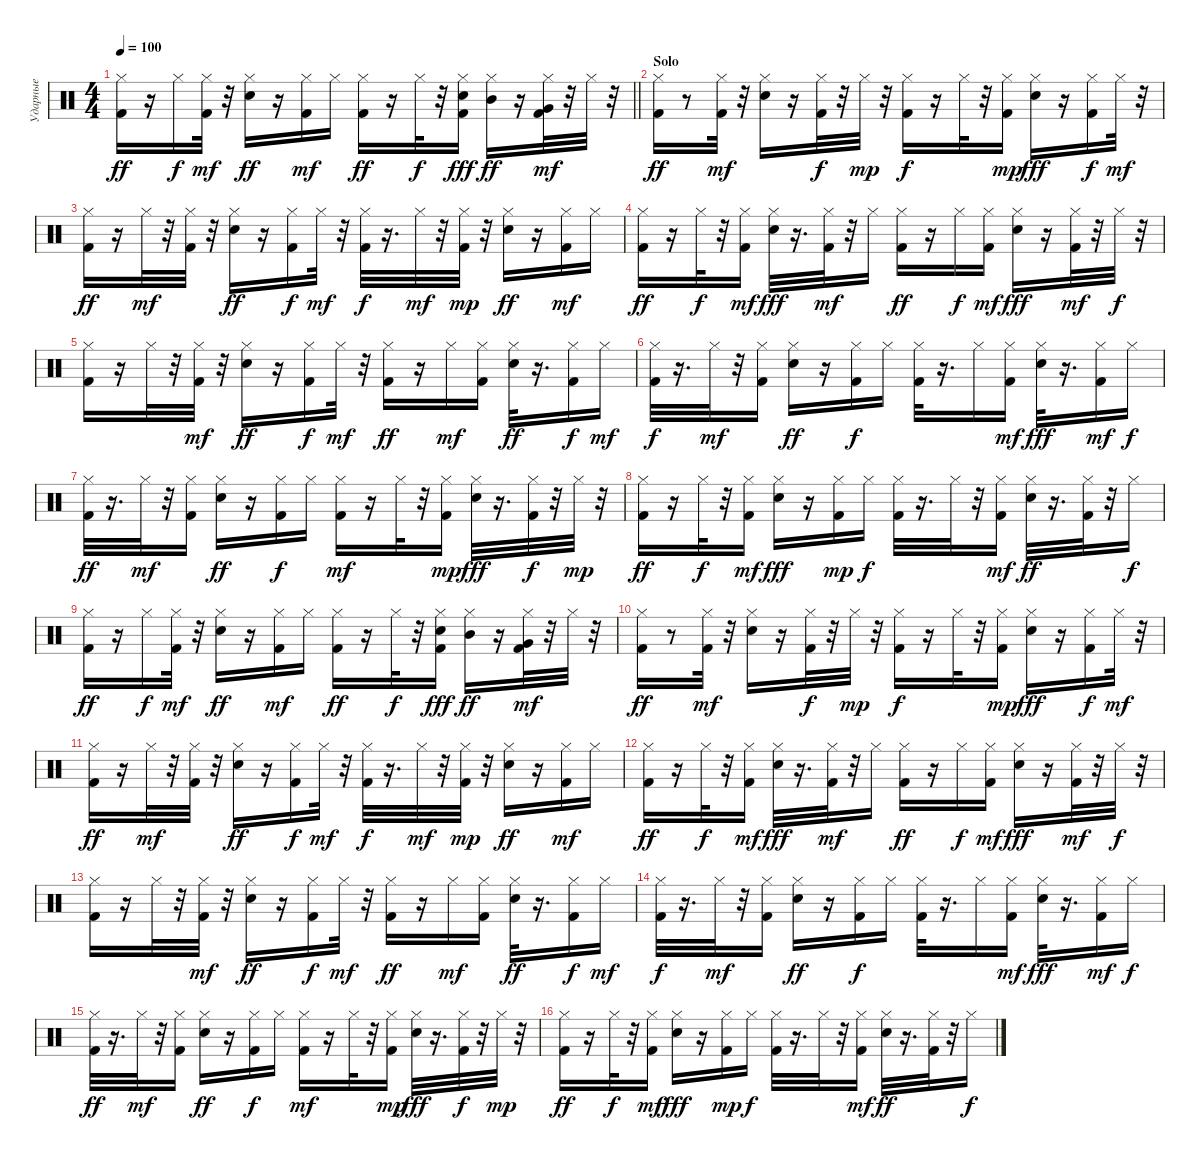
\track ("Ударные" "Ударные") {instrument percussion}
\staff {score}
\articulation defaults
\ts (4 4)
\tempo 100
\clef neutral
\barLineRight lightlight
\ks c
("Hi-Hat (closed)" "Kick (hit) 2").16{dy ff} r.16 "Hi-Hat (closed)".16{dy f} ("Kick (hit) 2" "Hi-Hat (closed)").32{dy mf} r.32 ("Hi-Hat (closed)" "Snare (hit) 2").16{dy ff} r.16 ("Hi-Hat (closed)" "Kick (hit) 2").16{dy mf} "Hi-Hat (closed)".16 ("Hi-Hat (closed)" "Kick (hit) 2").16{dy ff} r.16 "Hi-Hat (closed)".32{dy f} r.32 ("Hi-Hat (closed)" "Kick (hit) 2" "Snare (hit) 2").16{dy fff} ("Hi-Hat (closed)" "Mid Tom (hit)").16{dy ff} r.16 ("Kick (hit) 2" "Hi-Hat (closed)" "Very Low Tom (hit)").32{dy mf} r.32 "Hi-Hat (closed)".32 r.32 |
\section ("" "Solo")
("Kick (hit) 2" "Hi-Hat (closed)").16{dy ff} r.8 ("Hi-Hat (closed)" "Kick (hit) 2").32{dy mf} r.32 ("Snare (hit) 2" "Hi-Hat (closed)").16 r.16 ("Kick (hit) 2" "Hi-Hat (closed)").32{dy f} r.32 "Hi-Hat (closed)".32{dy mp} r.32 ("Kick (hit) 2" "Hi-Hat (closed)").16{dy f} r.16 "Hi-Hat (closed)".32 r.32 ("Kick (hit) 2" "Hi-Hat (closed)").16{dy mp} ("Hi-Hat (closed)" "Snare (hit) 2").16{dy fff} r.16 ("Kick (hit) 2" "Hi-Hat (closed)").16{dy f} "Hi-Hat (closed)".32{dy mf} r.32 |
("Kick (hit) 2" "Hi-Hat (closed)").16{dy ff} r.16 "Hi-Hat (closed)".32{dy mf} r.32 ("Kick (hit) 2" "Hi-Hat (closed)").32 r.32 ("Hi-Hat (closed)" "Snare (hit) 2").16{dy ff} r.16 ("Kick (hit) 2" "Hi-Hat (closed)").16{dy f} "Hi-Hat (closed)".32{dy mf} r.32 ("Kick (hit) 2" "Hi-Hat (closed)").32{dy f} r.16{d} "Hi-Hat (closed)".32{dy mf} r.32 ("Kick (hit) 2" "Hi-Hat (closed)").32{dy mp} r.32 ("Hi-Hat (closed)" "Snare (hit) 2").16{dy ff} r.16 ("Hi-Hat (closed)" "Kick (hit) 2").16{dy mf} "Hi-Hat (closed)".16 |
("Hi-Hat (closed)" "Kick (hit) 2").16{dy ff} r.16 "Hi-Hat (closed)".32{dy f} r.32 ("Kick (hit) 2" "Hi-Hat (closed)").16{dy mf} ("Hi-Hat (closed)" "Snare (hit) 2").32{dy fff} r.16{d} ("Kick (hit) 2" "Hi-Hat (closed)").32{dy mf} r.32 "Hi-Hat (closed)".16 ("Hi-Hat (closed)" "Kick (hit) 2").16{dy ff} r.16 "Hi-Hat (closed)".16{dy f} ("Kick (hit) 2" "Hi-Hat (closed)").16{dy mf} ("Hi-Hat (closed)" "Snare (hit) 2").16{dy fff} r.16 ("Kick (hit) 2" "Hi-Hat (closed)").32{dy mf} r.32 "Hi-Hat (closed)".32{dy f} r.32 |
("Hi-Hat (closed)" "Kick (hit) 2").16 r.16 "Hi-Hat (closed)".32 r.32 ("Kick (hit) 2" "Hi-Hat (closed)").32{dy mf} r.32 ("Hi-Hat (closed)" "Snare (hit) 2").16{dy ff} r.16 ("Kick (hit) 2" "Hi-Hat (closed)").16{dy f} "Hi-Hat (closed)".32{dy mf} r.32 ("Kick (hit) 2" "Hi-Hat (closed)").16{dy ff} r.16 "Hi-Hat (closed)".16{dy mf} ("Kick (hit) 2" "Hi-Hat (closed)").16 ("Hi-Hat (closed)" "Snare (hit) 2").32{dy ff} r.16{d} ("Kick (hit) 2" "Hi-Hat (closed)").16{dy f} "Hi-Hat (closed)".16{dy mf} |
("Kick (hit) 2" "Hi-Hat (closed)").32{dy f} r.16{d} "Hi-Hat (closed)".32{dy mf} r.32 ("Kick (hit) 2" "Hi-Hat (closed)").16 ("Hi-Hat (closed)" "Snare (hit) 2").16{dy ff} r.16 ("Kick (hit) 2" "Hi-Hat (closed)").16{dy f} "Hi-Hat (closed)".16 ("Kick (hit) 2" "Hi-Hat (closed)").32 r.16{d} "Hi-Hat (closed)".16 ("Kick (hit) 2" "Hi-Hat (closed)").16{dy mf} ("Hi-Hat (closed)" "Snare (hit) 2").32{dy fff} r.16{d} ("Kick (hit) 2" "Hi-Hat (closed)").16{dy mf} "Hi-Hat (closed)".16{dy f} |
("Kick (hit) 2" "Hi-Hat (closed)").32{dy ff} r.16{d} "Hi-Hat (closed)".32{dy mf} r.32 ("Kick (hit) 2" "Hi-Hat (closed)").16 ("Hi-Hat (closed)" "Snare (hit) 2").16{dy ff} r.16 ("Kick (hit) 2" "Hi-Hat (closed)").16{dy f} "Hi-Hat (closed)".16 ("Hi-Hat (closed)" "Kick (hit) 2").16{dy mf} r.16 "Hi-Hat (closed)".32 r.32 ("Kick (hit) 2" "Hi-Hat (closed)").16{dy mp} ("Hi-Hat (closed)" "Snare (hit) 2").32{dy fff} r.16{d} ("Kick (hit) 2" "Hi-Hat (closed)").32{dy f} r.32 "Hi-Hat (closed)".32{dy mp} r.32 |
("Kick (hit) 2" "Hi-Hat (closed)").16{dy ff} r.16 "Hi-Hat (closed)".32{dy f} r.32 ("Hi-Hat (closed)" "Kick (hit) 2").16{dy mf} ("Hi-Hat (closed)" "Snare (hit) 2").16{dy fff} r.16 ("Kick (hit) 2" "Hi-Hat (closed)").16{dy mp} "Hi-Hat (closed)".16{dy f} ("Kick (hit) 2" "Hi-Hat (closed)").32 r.16{d} "Hi-Hat (closed)".32 r.32 ("Kick (hit) 2" "Hi-Hat (closed)").16{dy mf} ("Hi-Hat (closed)" "Snare (hit) 2").32{dy ff} r.16{d} ("Kick (hit) 2" "Hi-Hat (closed)").32 r.32 "Hi-Hat (closed)".16{dy f} |
("Hi-Hat (closed)" "Kick (hit) 2").16{dy ff} r.16 "Hi-Hat (closed)".16{dy f} ("Kick (hit) 2" "Hi-Hat (closed)").32{dy mf} r.32 ("Hi-Hat (closed)" "Snare (hit) 2").16{dy ff} r.16 ("Hi-Hat (closed)" "Kick (hit) 2").16{dy mf} "Hi-Hat (closed)".16 ("Hi-Hat (closed)" "Kick (hit) 2").16{dy ff} r.16 "Hi-Hat (closed)".32{dy f} r.32 ("Hi-Hat (closed)" "Kick (hit) 2" "Snare (hit) 2").16{dy fff} ("Hi-Hat (closed)" "Mid Tom (hit)").16{dy ff} r.16 ("Kick (hit) 2" "Hi-Hat (closed)" "Very Low Tom (hit)").32{dy mf} r.32 "Hi-Hat (closed)".32 r.32 |
("Kick (hit) 2" "Hi-Hat (closed)").16{dy ff} r.8 ("Hi-Hat (closed)" "Kick (hit) 2").32{dy mf} r.32 ("Snare (hit) 2" "Hi-Hat (closed)").16 r.16 ("Kick (hit) 2" "Hi-Hat (closed)").32{dy f} r.32 "Hi-Hat (closed)".32{dy mp} r.32 ("Kick (hit) 2" "Hi-Hat (closed)").16{dy f} r.16 "Hi-Hat (closed)".32 r.32 ("Kick (hit) 2" "Hi-Hat (closed)").16{dy mp} ("Hi-Hat (closed)" "Snare (hit) 2").16{dy fff} r.16 ("Kick (hit) 2" "Hi-Hat (closed)").16{dy f} "Hi-Hat (closed)".32{dy mf} r.32 |
("Kick (hit) 2" "Hi-Hat (closed)").16{dy ff} r.16 "Hi-Hat (closed)".32{dy mf} r.32 ("Kick (hit) 2" "Hi-Hat (closed)").32 r.32 ("Hi-Hat (closed)" "Snare (hit) 2").16{dy ff} r.16 ("Kick (hit) 2" "Hi-Hat (closed)").16{dy f} "Hi-Hat (closed)".32{dy mf} r.32 ("Kick (hit) 2" "Hi-Hat (closed)").32{dy f} r.16{d} "Hi-Hat (closed)".32{dy mf} r.32 ("Kick (hit) 2" "Hi-Hat (closed)").32{dy mp} r.32 ("Hi-Hat (closed)" "Snare (hit) 2").16{dy ff} r.16 ("Hi-Hat (closed)" "Kick (hit) 2").16{dy mf} "Hi-Hat (closed)".16 |
("Hi-Hat (closed)" "Kick (hit) 2").16{dy ff} r.16 "Hi-Hat (closed)".32{dy f} r.32 ("Kick (hit) 2" "Hi-Hat (closed)").16{dy mf} ("Hi-Hat (closed)" "Snare (hit) 2").32{dy fff} r.16{d} ("Kick (hit) 2" "Hi-Hat (closed)").32{dy mf} r.32 "Hi-Hat (closed)".16 ("Hi-Hat (closed)" "Kick (hit) 2").16{dy ff} r.16 "Hi-Hat (closed)".16{dy f} ("Kick (hit) 2" "Hi-Hat (closed)").16{dy mf} ("Hi-Hat (closed)" "Snare (hit) 2").16{dy fff} r.16 ("Kick (hit) 2" "Hi-Hat (closed)").32{dy mf} r.32 "Hi-Hat (closed)".32{dy f} r.32 |
("Hi-Hat (closed)" "Kick (hit) 2").16 r.16 "Hi-Hat (closed)".32 r.32 ("Kick (hit) 2" "Hi-Hat (closed)").32{dy mf} r.32 ("Hi-Hat (closed)" "Snare (hit) 2").16{dy ff} r.16 ("Kick (hit) 2" "Hi-Hat (closed)").16{dy f} "Hi-Hat (closed)".32{dy mf} r.32 ("Kick (hit) 2" "Hi-Hat (closed)").16{dy ff} r.16 "Hi-Hat (closed)".16{dy mf} ("Kick (hit) 2" "Hi-Hat (closed)").16 ("Hi-Hat (closed)" "Snare (hit) 2").32{dy ff} r.16{d} ("Kick (hit) 2" "Hi-Hat (closed)").16{dy f} "Hi-Hat (closed)".16{dy mf} |
("Kick (hit) 2" "Hi-Hat (closed)").32{dy f} r.16{d} "Hi-Hat (closed)".32{dy mf} r.32 ("Kick (hit) 2" "Hi-Hat (closed)").16 ("Hi-Hat (closed)" "Snare (hit) 2").16{dy ff} r.16 ("Kick (hit) 2" "Hi-Hat (closed)").16{dy f} "Hi-Hat (closed)".16 ("Kick (hit) 2" "Hi-Hat (closed)").32 r.16{d} "Hi-Hat (closed)".16 ("Kick (hit) 2" "Hi-Hat (closed)").16{dy mf} ("Hi-Hat (closed)" "Snare (hit) 2").32{dy fff} r.16{d} ("Kick (hit) 2" "Hi-Hat (closed)").16{dy mf} "Hi-Hat (closed)".16{dy f} |
("Kick (hit) 2" "Hi-Hat (closed)").32{dy ff} r.16{d} "Hi-Hat (closed)".32{dy mf} r.32 ("Kick (hit) 2" "Hi-Hat (closed)").16 ("Hi-Hat (closed)" "Snare (hit) 2").16{dy ff} r.16 ("Kick (hit) 2" "Hi-Hat (closed)").16{dy f} "Hi-Hat (closed)".16 ("Hi-Hat (closed)" "Kick (hit) 2").16{dy mf} r.16 "Hi-Hat (closed)".32 r.32 ("Kick (hit) 2" "Hi-Hat (closed)").16{dy mp} ("Hi-Hat (closed)" "Snare (hit) 2").32{dy fff} r.16{d} ("Kick (hit) 2" "Hi-Hat (closed)").32{dy f} r.32 "Hi-Hat (closed)".32{dy mp} r.32 |
("Kick (hit) 2" "Hi-Hat (closed)").16{dy ff} r.16 "Hi-Hat (closed)".32{dy f} r.32 ("Hi-Hat (closed)" "Kick (hit) 2").16{dy mf} ("Hi-Hat (closed)" "Snare (hit) 2").16{dy fff} r.16 ("Kick (hit) 2" "Hi-Hat (closed)").16{dy mp} "Hi-Hat (closed)".16{dy f} ("Kick (hit) 2" "Hi-Hat (closed)").32 r.16{d} "Hi-Hat (closed)".32 r.32 ("Kick (hit) 2" "Hi-Hat (closed)").16{dy mf} ("Hi-Hat (closed)" "Snare (hit) 2").32{dy ff} r.16{d} ("Kick (hit) 2" "Hi-Hat (closed)").32 r.32 "Hi-Hat (closed)".16{dy f}
